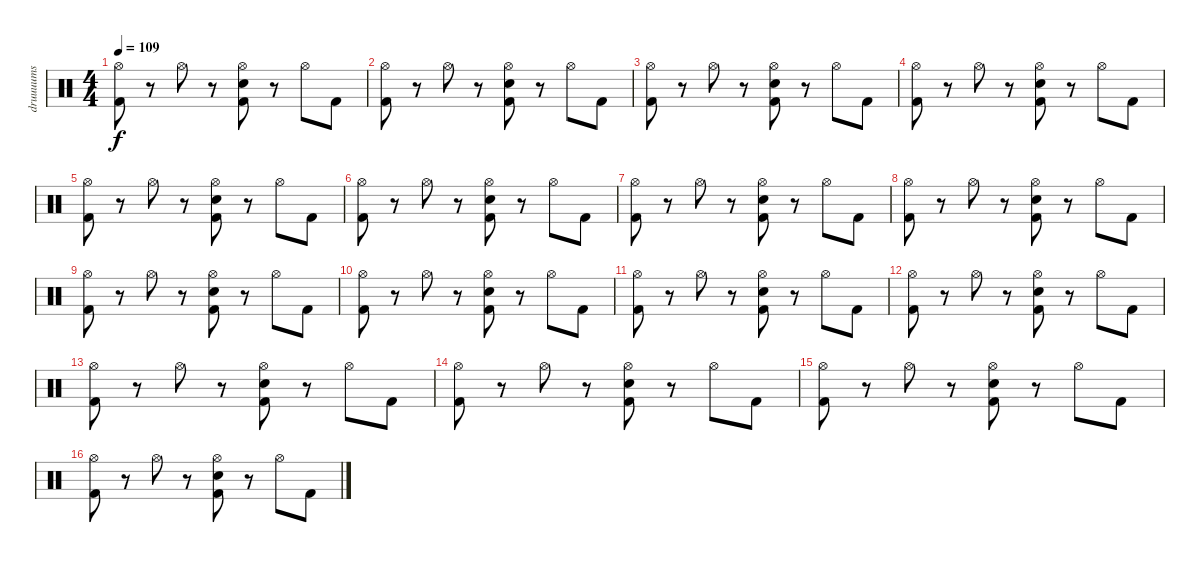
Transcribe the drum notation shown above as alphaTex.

\track ("druuuums" "druuuums") {instrument percussion}
\staff {score}
\articulation defaults
\ts (4 4)
\tempo 109
\clef neutral
\ks c
("Hi-Hat (open)" "Kick (hit) 2").8{dy f} r.8 "Hi-Hat (open)".8 r.8 ("Electric Snare (hit)" "Hi-Hat (open)" "Kick (hit) 2").8 r.8 "Hi-Hat (open)".8 "Kick (hit) 2".8 |
("Hi-Hat (open)" "Kick (hit) 2").8 r.8 "Hi-Hat (open)".8 r.8 ("Electric Snare (hit)" "Hi-Hat (open)" "Kick (hit) 2").8 r.8 "Hi-Hat (open)".8 "Kick (hit) 2".8 |
("Hi-Hat (open)" "Kick (hit) 2").8 r.8 "Hi-Hat (open)".8 r.8 ("Electric Snare (hit)" "Hi-Hat (open)" "Kick (hit) 2").8 r.8 "Hi-Hat (open)".8 "Kick (hit) 2".8 |
("Hi-Hat (open)" "Kick (hit) 2").8 r.8 "Hi-Hat (open)".8 r.8 ("Electric Snare (hit)" "Hi-Hat (open)" "Kick (hit) 2").8 r.8 "Hi-Hat (open)".8 "Kick (hit) 2".8 |
("Hi-Hat (open)" "Kick (hit) 2").8 r.8 "Hi-Hat (open)".8 r.8 ("Electric Snare (hit)" "Hi-Hat (open)" "Kick (hit) 2").8 r.8 "Hi-Hat (open)".8 "Kick (hit) 2".8 |
("Hi-Hat (open)" "Kick (hit) 2").8 r.8 "Hi-Hat (open)".8 r.8 ("Electric Snare (hit)" "Hi-Hat (open)" "Kick (hit) 2").8 r.8 "Hi-Hat (open)".8 "Kick (hit) 2".8 |
("Hi-Hat (open)" "Kick (hit) 2").8 r.8 "Hi-Hat (open)".8 r.8 ("Electric Snare (hit)" "Hi-Hat (open)" "Kick (hit) 2").8 r.8 "Hi-Hat (open)".8 "Kick (hit) 2".8 |
("Hi-Hat (open)" "Kick (hit) 2").8 r.8 "Hi-Hat (open)".8 r.8 ("Electric Snare (hit)" "Hi-Hat (open)" "Kick (hit) 2").8 r.8 "Hi-Hat (open)".8 "Kick (hit) 2".8 |
("Hi-Hat (open)" "Kick (hit) 2").8 r.8 "Hi-Hat (open)".8 r.8 ("Electric Snare (hit)" "Hi-Hat (open)" "Kick (hit) 2").8 r.8 "Hi-Hat (open)".8 "Kick (hit) 2".8 |
("Hi-Hat (open)" "Kick (hit) 2").8 r.8 "Hi-Hat (open)".8 r.8 ("Electric Snare (hit)" "Hi-Hat (open)" "Kick (hit) 2").8 r.8 "Hi-Hat (open)".8 "Kick (hit) 2".8 |
("Hi-Hat (open)" "Kick (hit) 2").8 r.8 "Hi-Hat (open)".8 r.8 ("Electric Snare (hit)" "Hi-Hat (open)" "Kick (hit) 2").8 r.8 "Hi-Hat (open)".8 "Kick (hit) 2".8 |
("Hi-Hat (open)" "Kick (hit) 2").8 r.8 "Hi-Hat (open)".8 r.8 ("Electric Snare (hit)" "Hi-Hat (open)" "Kick (hit) 2").8 r.8 "Hi-Hat (open)".8 "Kick (hit) 2".8 |
("Hi-Hat (open)" "Kick (hit) 2").8 r.8 "Hi-Hat (open)".8 r.8 ("Electric Snare (hit)" "Hi-Hat (open)" "Kick (hit) 2").8 r.8 "Hi-Hat (open)".8 "Kick (hit) 2".8 |
("Hi-Hat (open)" "Kick (hit) 2").8 r.8 "Hi-Hat (open)".8 r.8 ("Electric Snare (hit)" "Hi-Hat (open)" "Kick (hit) 2").8 r.8 "Hi-Hat (open)".8 "Kick (hit) 2".8 |
("Hi-Hat (open)" "Kick (hit) 2").8 r.8 "Hi-Hat (open)".8 r.8 ("Electric Snare (hit)" "Hi-Hat (open)" "Kick (hit) 2").8 r.8 "Hi-Hat (open)".8 "Kick (hit) 2".8 |
("Hi-Hat (open)" "Kick (hit) 2").8 r.8 "Hi-Hat (open)".8 r.8 ("Electric Snare (hit)" "Hi-Hat (open)" "Kick (hit) 2").8 r.8 "Hi-Hat (open)".8 "Kick (hit) 2".8
